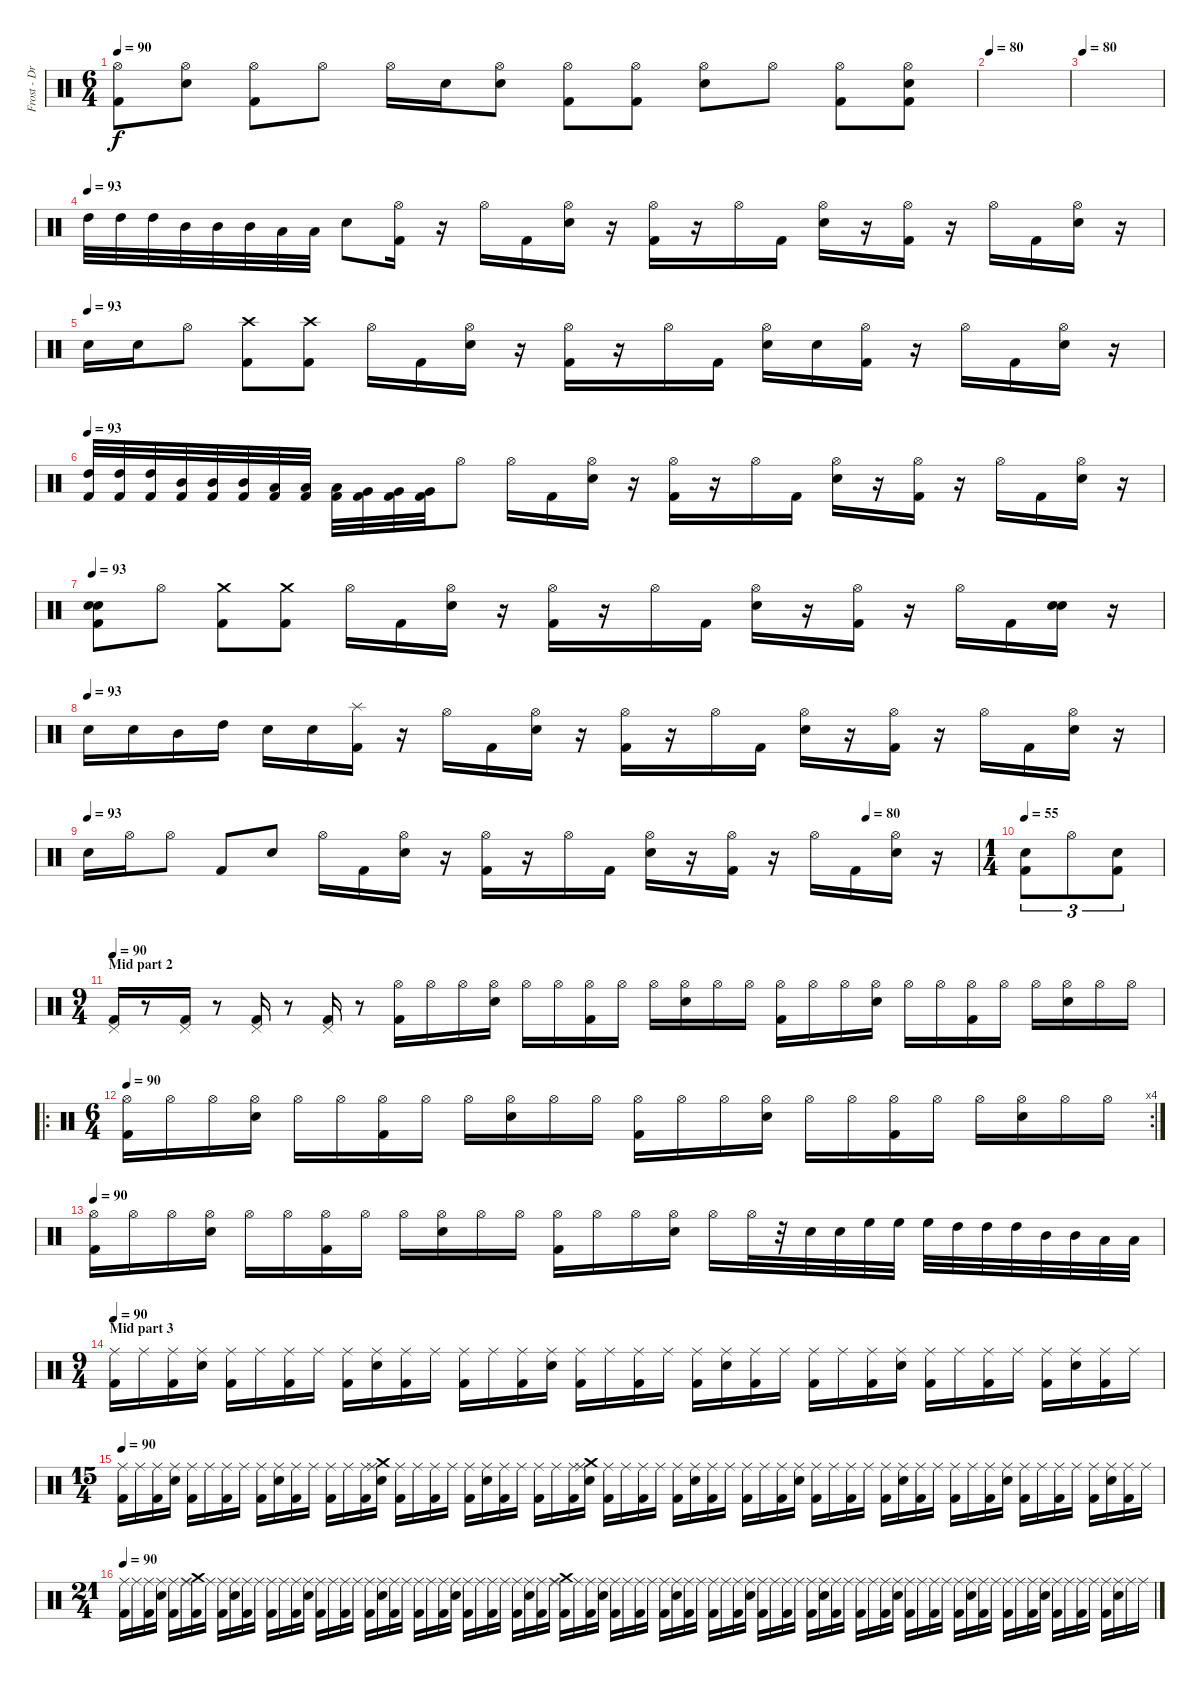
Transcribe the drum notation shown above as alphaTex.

\track ("Frost - Drums" "Frost - Dr") {instrument percussion}
\staff {score}
\articulation defaults
\ts (6 4)
\tempo 90
\clef neutral
\ks c
("Hi-Hat (open)" "Kick (hit) 2").8{dy f} ("Hi-Hat (open)" "Electric Snare (hit)").8 ("Hi-Hat (open)" "Kick (hit) 2").8 "Hi-Hat (open)".8 "Hi-Hat (open)".16 "Electric Snare (hit)".16 ("Hi-Hat (open)" "Electric Snare (hit)").8 ("Hi-Hat (open)" "Kick (hit) 2").8 ("Hi-Hat (open)" "Kick (hit) 2").8 ("Hi-Hat (open)" "Electric Snare (hit)").8 "Hi-Hat (open)".8 ("Hi-Hat (open)" "Kick (hit) 2").8 ("Hi-Hat (open)" "Electric Snare (hit)" "Kick (hit) 2").8 |
\tempo 80
|
\tempo 80
|
\tempo (93)
"High Tom (hit)".32 "High Tom (hit)".32 "High Tom (hit)".32 "Mid Tom (hit)".32 "Mid Tom (hit)".32 "Mid Tom (hit)".32 "Low Tom (hit)".32 "Low Tom (hit)".32 "Electric Snare (hit)".8 ("Hi-Hat (open)" "Kick (hit) 2").16 r.16 "Hi-Hat (open)".16 "Kick (hit) 2".16 ("Hi-Hat (open)" "Electric Snare (hit)").16 r.16 ("Hi-Hat (open)" "Kick (hit) 2").16 r.16 "Hi-Hat (open)".16 "Kick (hit) 2".16 ("Hi-Hat (open)" "Electric Snare (hit)").16 r.16 ("Hi-Hat (open)" "Kick (hit) 2").16 r.16 "Hi-Hat (open)".16 "Kick (hit) 2".16 ("Hi-Hat (open)" "Electric Snare (hit)").16 r.16 |
\tempo (93)
"Electric Snare (hit)".16 "Electric Snare (hit)".16 "Hi-Hat (open)".8 ("Crash high (hit)" "Kick (hit) 2").8 ("Crash high (hit)" "Kick (hit) 2").8 "Hi-Hat (open)".16 "Kick (hit) 2".16 ("Hi-Hat (open)" "Electric Snare (hit)").16 r.16 ("Hi-Hat (open)" "Kick (hit) 2").16 r.16 "Hi-Hat (open)".16 "Kick (hit) 2".16 ("Hi-Hat (open)" "Electric Snare (hit)").16 "Electric Snare (hit)".16 ("Hi-Hat (open)" "Kick (hit) 2").16 r.16 "Hi-Hat (open)".16 "Kick (hit) 2".16 ("Hi-Hat (open)" "Electric Snare (hit)").16 r.16 |
\tempo 93
("High Tom (hit)" "Kick (hit) 2").32 ("High Tom (hit)" "Kick (hit) 2").32 ("High Tom (hit)" "Kick (hit) 2").32 ("Mid Tom (hit)" "Kick (hit) 2").32 ("Mid Tom (hit)" "Kick (hit) 2").32 ("Mid Tom (hit)" "Kick (hit) 2").32 ("Low Tom (hit)" "Kick (hit) 2").32 ("Low Tom (hit)" "Kick (hit) 2").32 ("Low Tom (hit)" "Kick (hit) 2").32 ("Very Low Tom (hit)" "Kick (hit) 2").32 ("Very Low Tom (hit)" "Kick (hit) 2").32 ("Very Low Tom (hit)" "Kick (hit) 2").32 "Hi-Hat (open)".8 "Hi-Hat (open)".16 "Kick (hit) 2".16 ("Hi-Hat (open)" "Electric Snare (hit)").16 r.16 ("Hi-Hat (open)" "Kick (hit) 2").16 r.16 "Hi-Hat (open)".16 "Kick (hit) 2".16 ("Hi-Hat (open)" "Electric Snare (hit)").16 r.16 ("Hi-Hat (open)" "Kick (hit) 2").16 r.16 "Hi-Hat (open)".16 "Kick (hit) 2".16 ("Hi-Hat (open)" "Electric Snare (hit)").16 r.16 |
\tempo 93
("Electric Snare (hit)" "Electric Snare (hit)" "Kick (hit) 2").8 "Hi-Hat (open)".8 ("Crash medium (hit)" "Kick (hit) 2").8 ("Crash medium (hit)" "Kick (hit) 2").8 "Hi-Hat (open)".16 "Kick (hit) 2".16 ("Hi-Hat (open)" "Electric Snare (hit)").16 r.16 ("Hi-Hat (open)" "Kick (hit) 2").16 r.16 "Hi-Hat (open)".16 "Kick (hit) 2".16 ("Hi-Hat (open)" "Electric Snare (hit)").16 r.16 ("Hi-Hat (open)" "Kick (hit) 2").16 r.16 "Hi-Hat (open)".16 "Kick (hit) 2".16 ("Electric Snare (hit)" "Electric Snare (hit)").16 r.16 |
\tempo (93)
"Electric Snare (hit)".16 "Electric Snare (hit)".16 "Mid Tom (hit)".16 "High Tom (hit)".16 "Electric Snare (hit)".16 "Electric Snare (hit)".16 ("Splash (hit)" "Kick (hit) 2").16 r.16 "Hi-Hat (open)".16 "Kick (hit) 2".16 ("Hi-Hat (open)" "Electric Snare (hit)").16 r.16 ("Hi-Hat (open)" "Kick (hit) 2").16 r.16 "Hi-Hat (open)".16 "Kick (hit) 2".16 ("Hi-Hat (open)" "Electric Snare (hit)").16 r.16 ("Hi-Hat (open)" "Kick (hit) 2").16 r.16 "Hi-Hat (open)".16 "Kick (hit) 2".16 ("Hi-Hat (open)" "Electric Snare (hit)").16 r.16 |
\tempo 93
\tempo (80 0.875)
"Electric Snare (hit)".16 "Hi-Hat (open)".16 "Hi-Hat (open)".8 "Kick (hit) 2".8 "Electric Snare (hit)".8 "Hi-Hat (open)".16 "Kick (hit) 2".16 ("Hi-Hat (open)" "Electric Snare (hit)").16 r.16 ("Hi-Hat (open)" "Kick (hit) 2").16 r.16 "Hi-Hat (open)".16 "Kick (hit) 2".16 ("Hi-Hat (open)" "Electric Snare (hit)").16 r.16 ("Hi-Hat (open)" "Kick (hit) 2").16 r.16 "Hi-Hat (open)".16 "Kick (hit) 2".16 ("Hi-Hat (open)" "Electric Snare (hit)").16 r.16 |
\ts (1 4)
\tempo 55
("Electric Snare (hit)" "Kick (hit) 2").8{tu (3 2)} "Hi-Hat (open)".8{tu (3 2)} ("Electric Snare (hit)" "Kick (hit) 2").8{tu (3 2)} |
\ts (9 4)
\section ("" "Mid part 2")
\tempo 90
("Kick (hit) 2" "Pedal Hi-Hat (hit)").16 r.8 ("Kick (hit) 2" "Pedal Hi-Hat (hit)").16 r.8 ("Kick (hit) 2" "Pedal Hi-Hat (hit)").16 r.8 ("Kick (hit) 2" "Pedal Hi-Hat (hit)").16 r.8 ("Hi-Hat (open)" "Kick (hit) 2").16 "Hi-Hat (open)".16 "Hi-Hat (open)".16 ("Hi-Hat (open)" "Electric Snare (hit)").16 "Hi-Hat (open)".16 "Hi-Hat (open)".16 ("Hi-Hat (open)" "Kick (hit) 2").16 "Hi-Hat (open)".16 "Hi-Hat (open)".16 ("Hi-Hat (open)" "Electric Snare (hit)").16 "Hi-Hat (open)".16 "Hi-Hat (open)".16 ("Hi-Hat (open)" "Kick (hit) 2").16 "Hi-Hat (open)".16 "Hi-Hat (open)".16 ("Hi-Hat (open)" "Electric Snare (hit)").16 "Hi-Hat (open)".16 "Hi-Hat (open)".16 ("Hi-Hat (open)" "Kick (hit) 2").16 "Hi-Hat (open)".16 "Hi-Hat (open)".16 ("Hi-Hat (open)" "Electric Snare (hit)").16 "Hi-Hat (open)".16 "Hi-Hat (open)".16 |
\ro
\rc 4
\ts (6 4)
\tempo 90
("Hi-Hat (open)" "Kick (hit) 2").16 "Hi-Hat (open)".16 "Hi-Hat (open)".16 ("Hi-Hat (open)" "Electric Snare (hit)").16 "Hi-Hat (open)".16 "Hi-Hat (open)".16 ("Hi-Hat (open)" "Kick (hit) 2").16 "Hi-Hat (open)".16 "Hi-Hat (open)".16 ("Hi-Hat (open)" "Electric Snare (hit)").16 "Hi-Hat (open)".16 "Hi-Hat (open)".16 ("Hi-Hat (open)" "Kick (hit) 2").16 "Hi-Hat (open)".16 "Hi-Hat (open)".16 ("Hi-Hat (open)" "Electric Snare (hit)").16 "Hi-Hat (open)".16 "Hi-Hat (open)".16 ("Hi-Hat (open)" "Kick (hit) 2").16 "Hi-Hat (open)".16 "Hi-Hat (open)".16 ("Hi-Hat (open)" "Electric Snare (hit)").16 "Hi-Hat (open)".16 "Hi-Hat (open)".16 |
\tempo 90
("Hi-Hat (open)" "Kick (hit) 2").16 "Hi-Hat (open)".16 "Hi-Hat (open)".16 ("Hi-Hat (open)" "Electric Snare (hit)").16 "Hi-Hat (open)".16 "Hi-Hat (open)".16 ("Hi-Hat (open)" "Kick (hit) 2").16 "Hi-Hat (open)".16 "Hi-Hat (open)".16 ("Hi-Hat (open)" "Electric Snare (hit)").16 "Hi-Hat (open)".16 "Hi-Hat (open)".16 ("Hi-Hat (open)" "Kick (hit) 2").16 "Hi-Hat (open)".16 "Hi-Hat (open)".16 ("Hi-Hat (open)" "Electric Snare (hit)").16 "Hi-Hat (open)".16 "Hi-Hat (open)".32 r.32 "Electric Snare (hit)".32 "Electric Snare (hit)".32 "High Floor Tom (hit)".32 "High Floor Tom (hit)".32 "High Floor Tom (hit)".32 "High Tom (hit)".32 "High Tom (hit)".32 "High Tom (hit)".32 "Mid Tom (hit)".32 "Mid Tom (hit)".32 "Low Tom (hit)".32 "Low Tom (hit)".32 |
\ts (9 4)
\section ("" "Mid part 3")
\tempo 90
("Ride (middle)" "Kick (hit) 2").16 "Ride (middle)".16 ("Ride (middle)" "Kick (hit) 2").16 ("Ride (middle)" "Electric Snare (hit)").16 ("Ride (middle)" "Kick (hit) 2").16 "Ride (middle)".16 ("Ride (middle)" "Kick (hit) 2").16 "Ride (middle)".16 ("Ride (middle)" "Kick (hit) 2").16 ("Ride (middle)" "Electric Snare (hit)").16 ("Ride (middle)" "Kick (hit) 2").16 "Ride (middle)".16 ("Ride (middle)" "Kick (hit) 2").16 "Ride (middle)".16 ("Ride (middle)" "Kick (hit) 2").16 ("Ride (middle)" "Electric Snare (hit)").16 ("Ride (middle)" "Kick (hit) 2").16 "Ride (middle)".16 ("Ride (middle)" "Kick (hit) 2").16 "Ride (middle)".16 ("Ride (middle)" "Kick (hit) 2").16 ("Ride (middle)" "Electric Snare (hit)").16 ("Ride (middle)" "Kick (hit) 2").16 "Ride (middle)".16 ("Ride (middle)" "Kick (hit) 2").16 "Ride (middle)".16 ("Ride (middle)" "Kick (hit) 2").16 ("Ride (middle)" "Electric Snare (hit)").16 ("Ride (middle)" "Kick (hit) 2").16 "Ride (middle)".16 ("Ride (middle)" "Kick (hit) 2").16 "Ride (middle)".16 ("Ride (middle)" "Kick (hit) 2").16 ("Ride (middle)" "Electric Snare (hit)").16 ("Ride (middle)" "Kick (hit) 2").16 "Ride (middle)".16 |
\ts (15 4)
\tempo 90
("Ride (middle)" "Kick (hit) 2").16 "Ride (middle)".16 ("Ride (middle)" "Kick (hit) 2").16 ("Ride (middle)" "Electric Snare (hit)").16 ("Ride (middle)" "Kick (hit) 2").16 "Ride (middle)".16 ("Ride (middle)" "Kick (hit) 2").16 "Ride (middle)".16 ("Ride (middle)" "Kick (hit) 2").16 ("Ride (middle)" "Electric Snare (hit)").16 ("Ride (middle)" "Kick (hit) 2").16 "Ride (middle)".16 ("Ride (middle)" "Kick (hit) 2").16 "Ride (middle)".16 ("Ride (middle)" "Kick (hit) 2").16 ("Ride (middle)" "Electric Snare (hit)" "Crash medium (hit)").16 ("Ride (middle)" "Kick (hit) 2").16 "Ride (middle)".16 ("Ride (middle)" "Kick (hit) 2").16 "Ride (middle)".16 ("Ride (middle)" "Kick (hit) 2").16 ("Ride (middle)" "Electric Snare (hit)").16 ("Ride (middle)" "Kick (hit) 2").16 "Ride (middle)".16 ("Ride (middle)" "Kick (hit) 2").16 "Ride (middle)".16 ("Ride (middle)" "Kick (hit) 2").16 ("Ride (middle)" "Electric Snare (hit)" "Crash medium (hit)").16 ("Ride (middle)" "Kick (hit) 2").16 "Ride (middle)".16 ("Ride (middle)" "Kick (hit) 2").16 "Ride (middle)".16 ("Ride (middle)" "Kick (hit) 2").16 ("Ride (middle)" "Electric Snare (hit)").16 ("Ride (middle)" "Kick (hit) 2").16 "Ride (middle)".16 ("Ride (middle)" "Kick (hit) 2").16 "Ride (middle)".16 ("Ride (middle)" "Kick (hit) 2").16 ("Ride (middle)" "Electric Snare (hit)").16 ("Ride (middle)" "Kick (hit) 2").16 "Ride (middle)".16 ("Ride (middle)" "Kick (hit) 2").16 "Ride (middle)".16 ("Ride (middle)" "Kick (hit) 2").16 ("Ride (middle)" "Electric Snare (hit)").16 ("Ride (middle)" "Kick (hit) 2").16 "Ride (middle)".16 ("Ride (middle)" "Kick (hit) 2").16 "Ride (middle)".16 ("Ride (middle)" "Kick (hit) 2").16 ("Ride (middle)" "Electric Snare (hit)").16 ("Ride (middle)" "Kick (hit) 2").16 "Ride (middle)".16 ("Ride (middle)" "Kick (hit) 2").16 "Ride (middle)".16 ("Ride (middle)" "Kick (hit) 2").16 ("Ride (middle)" "Electric Snare (hit)").16 ("Ride (middle)" "Kick (hit) 2").16 "Ride (middle)".16 |
\ts (21 4)
\tempo 90
("Ride (middle)" "Kick (hit) 2").16 "Ride (middle)".16 ("Ride (middle)" "Kick (hit) 2").16 ("Ride (middle)" "Electric Snare (hit)").16 ("Ride (middle)" "Kick (hit) 2").16 "Ride (middle)".16 ("Ride (middle)" "Kick (hit) 2" "Crash medium (hit)").16 "Ride (middle)".16 ("Ride (middle)" "Kick (hit) 2").16 ("Ride (middle)" "Electric Snare (hit)").16 ("Ride (middle)" "Kick (hit) 2").16 "Ride (middle)".16 ("Ride (middle)" "Kick (hit) 2").16 "Ride (middle)".16 ("Ride (middle)" "Kick (hit) 2").16 ("Ride (middle)" "Electric Snare (hit)").16 ("Ride (middle)" "Kick (hit) 2").16 "Ride (middle)".16 ("Ride (middle)" "Kick (hit) 2").16 "Ride (middle)".16 ("Ride (middle)" "Kick (hit) 2").16 ("Ride (middle)" "Electric Snare (hit)").16 ("Ride (middle)" "Kick (hit) 2").16 "Ride (middle)".16 ("Ride (middle)" "Kick (hit) 2").16 "Ride (middle)".16 ("Ride (middle)" "Kick (hit) 2").16 ("Ride (middle)" "Electric Snare (hit)").16 ("Ride (middle)" "Kick (hit) 2").16 "Ride (middle)".16 ("Ride (middle)" "Kick (hit) 2").16 "Ride (middle)".16 ("Ride (middle)" "Kick (hit) 2").16 ("Ride (middle)" "Electric Snare (hit)").16 ("Ride (middle)" "Kick (hit) 2").16 "Ride (middle)".16 ("Ride (middle)" "Kick (hit) 2" "Crash medium (hit)").16 "Ride (middle)".16 ("Ride (middle)" "Kick (hit) 2").16 ("Ride (middle)" "Electric Snare (hit)").16 ("Ride (middle)" "Kick (hit) 2").16 "Ride (middle)".16 ("Ride (middle)" "Kick (hit) 2").16 "Ride (middle)".16 ("Ride (middle)" "Kick (hit) 2").16 ("Ride (middle)" "Electric Snare (hit)").16 ("Ride (middle)" "Kick (hit) 2").16 "Ride (middle)".16 ("Ride (middle)" "Kick (hit) 2").16 "Ride (middle)".16 ("Ride (middle)" "Kick (hit) 2").16 ("Ride (middle)" "Electric Snare (hit)").16 ("Ride (middle)" "Kick (hit) 2").16 "Ride (middle)".16 ("Ride (middle)" "Kick (hit) 2").16 "Ride (middle)".16 ("Ride (middle)" "Kick (hit) 2").16 ("Ride (middle)" "Electric Snare (hit)").16 ("Ride (middle)" "Kick (hit) 2").16 "Ride (middle)".16 ("Ride (middle)" "Kick (hit) 2").16 "Ride (middle)".16 ("Ride (middle)" "Kick (hit) 2").16 ("Ride (middle)" "Electric Snare (hit)").16 ("Ride (middle)" "Kick (hit) 2").16 "Ride (middle)".16 ("Ride (middle)" "Kick (hit) 2").16 "Ride (middle)".16 ("Ride (middle)" "Kick (hit) 2").16 ("Ride (middle)" "Electric Snare (hit)").16 ("Ride (middle)" "Kick (hit) 2").16 "Ride (middle)".16 ("Ride (middle)" "Kick (hit) 2").16 "Ride (middle)".16 ("Ride (middle)" "Kick (hit) 2").16 ("Ride (middle)" "Electric Snare (hit)").16 ("Ride (middle)" "Kick (hit) 2").16 "Ride (middle)".16 ("Ride (middle)" "Kick (hit) 2").16 "Ride (middle)".16 ("Ride (middle)" "Kick (hit) 2").16 ("Ride (middle)" "Electric Snare (hit)").16 "Ride (middle)".16 "Ride (middle)".16
